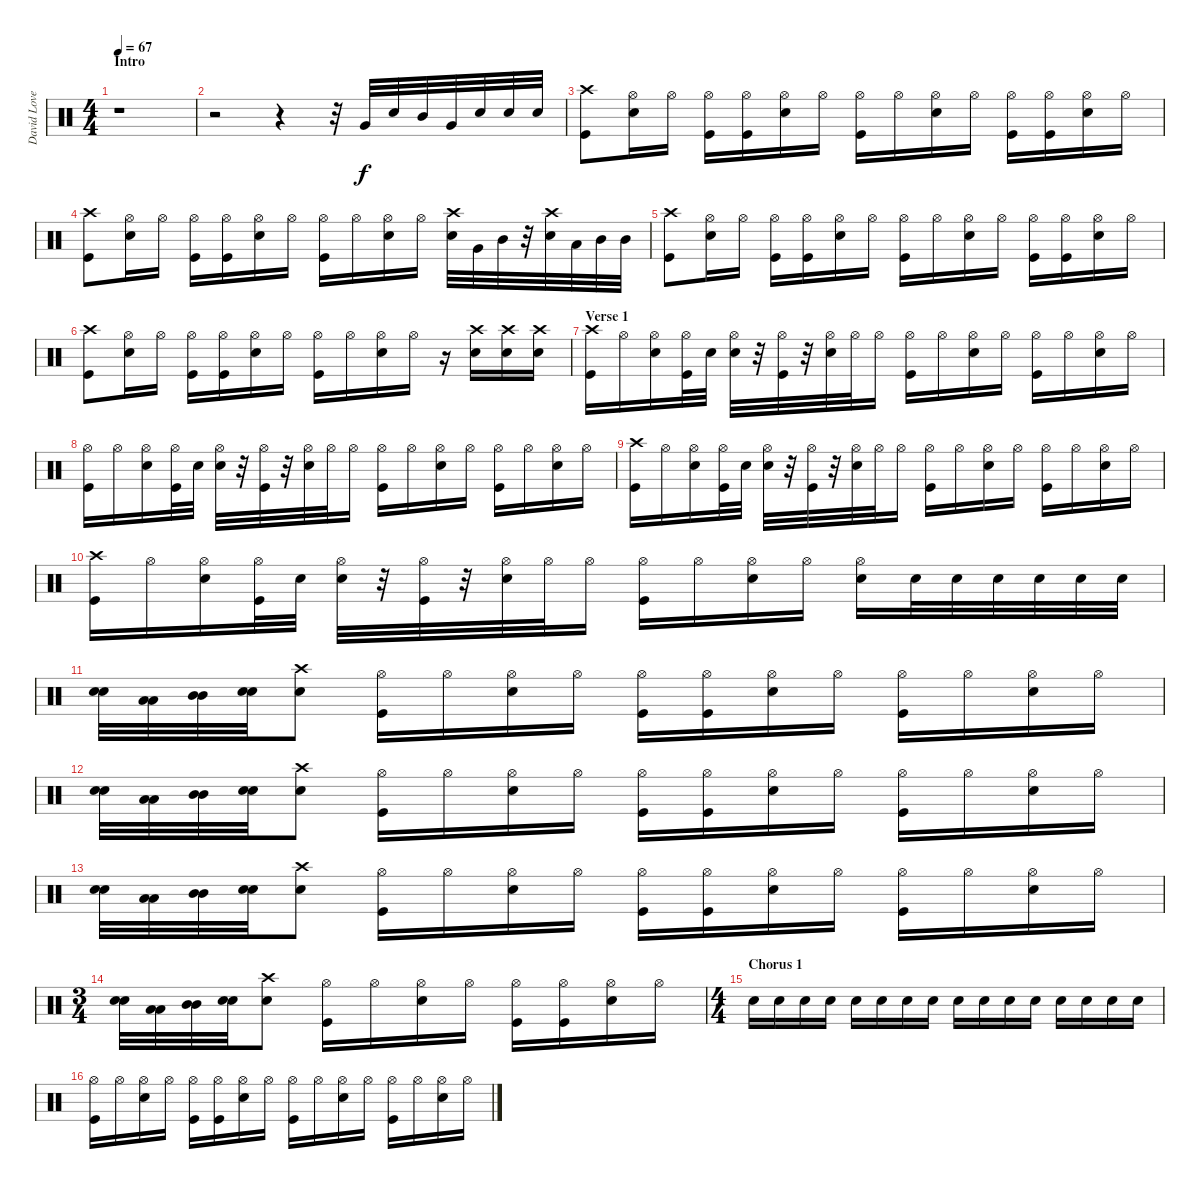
\track ("David Lovering (Drums)" "David Love") {instrument percussion}
\staff {score}
\articulation defaults
\ts (4 4)
\section ("" "Intro")
\tempo 67
\clef neutral
\ks c
r.1{dy f} |
r.2 r.4 r.32 "Very Low Tom (hit)".32 "Snare (hit) 2".32 "Mid Tom (hit)".32 "Very Low Tom (hit)".32 "Snare (hit) 2".32 "Snare (hit) 2".32 "Snare (hit) 2".32 |
("Crash high (hit)" "Kick (hit)").8 ("Hi-Hat (open)" "Snare (hit) 2").16 "Hi-Hat (open)".16 ("Hi-Hat (open)" "Kick (hit)").16 ("Hi-Hat (open)" "Kick (hit)").16 ("Hi-Hat (open)" "Snare (hit) 2").16 "Hi-Hat (open)".16 ("Hi-Hat (open)" "Kick (hit)").16 "Hi-Hat (open)".16 ("Hi-Hat (open)" "Snare (hit) 2").16 "Hi-Hat (open)".16 ("Hi-Hat (open)" "Kick (hit)").16 ("Hi-Hat (open)" "Kick (hit)").16 ("Hi-Hat (open)" "Snare (hit) 2").16 "Hi-Hat (open)".16 |
("Crash high (hit)" "Kick (hit)").8 ("Hi-Hat (open)" "Snare (hit) 2").16 "Hi-Hat (open)".16 ("Hi-Hat (open)" "Kick (hit)").16 ("Hi-Hat (open)" "Kick (hit)").16 ("Hi-Hat (open)" "Snare (hit) 2").16 "Hi-Hat (open)".16 ("Hi-Hat (open)" "Kick (hit)").16 "Hi-Hat (open)".16 ("Hi-Hat (open)" "Snare (hit) 2").16 "Hi-Hat (open)".16 ("Crash high (hit)" "Snare (hit) 2").32 "Very Low Tom (hit)".32 "Mid Tom (hit)".32 r.32 ("Crash high (hit)" "Snare (hit) 2").32 "Low Tom (hit)".32 "Mid Tom (hit)".32 "Mid Tom (hit)".32 |
("Crash high (hit)" "Kick (hit)").8 ("Hi-Hat (open)" "Snare (hit) 2").16 "Hi-Hat (open)".16 ("Hi-Hat (open)" "Kick (hit)").16 ("Hi-Hat (open)" "Kick (hit)").16 ("Hi-Hat (open)" "Snare (hit) 2").16 "Hi-Hat (open)".16 ("Hi-Hat (open)" "Kick (hit)").16 "Hi-Hat (open)".16 ("Hi-Hat (open)" "Snare (hit) 2").16 "Hi-Hat (open)".16 ("Hi-Hat (open)" "Kick (hit)").16 ("Hi-Hat (open)" "Kick (hit)").16 ("Hi-Hat (open)" "Snare (hit) 2").16 "Hi-Hat (open)".16 |
("Crash high (hit)" "Kick (hit)").8 ("Hi-Hat (open)" "Snare (hit) 2").16 "Hi-Hat (open)".16 ("Hi-Hat (open)" "Kick (hit)").16 ("Hi-Hat (open)" "Kick (hit)").16 ("Hi-Hat (open)" "Snare (hit) 2").16 "Hi-Hat (open)".16 ("Hi-Hat (open)" "Kick (hit)").16 "Hi-Hat (open)".16 ("Hi-Hat (open)" "Snare (hit) 2").16 "Hi-Hat (open)".16 r.16 ("Crash high (hit)" "Snare (hit) 2").16 ("Crash high (hit)" "Snare (hit) 2").16 ("Crash high (hit)" "Snare (hit) 2").16 |
\section ("" "Verse 1")
("Crash high (hit)" "Kick (hit)").16 "Hi-Hat (open)".16 ("Hi-Hat (open)" "Snare (hit) 2").16 ("Hi-Hat (open)" "Kick (hit)").32 "Snare (hit) 2".32 ("Hi-Hat (open)" "Snare (hit) 2").32 r.32 ("Hi-Hat (open)" "Kick (hit)").32 r.32 ("Hi-Hat (open)" "Snare (hit) 2").32 "Hi-Hat (open)".32 "Hi-Hat (open)".16 ("Hi-Hat (open)" "Kick (hit)").16 "Hi-Hat (open)".16 ("Hi-Hat (open)" "Snare (hit) 2").16 "Hi-Hat (open)".16 ("Hi-Hat (open)" "Kick (hit)").16 "Hi-Hat (open)".16 ("Hi-Hat (open)" "Snare (hit) 2").16 "Hi-Hat (open)".16 |
("Hi-Hat (open)" "Kick (hit)").16 "Hi-Hat (open)".16 ("Hi-Hat (open)" "Snare (hit) 2").16 ("Hi-Hat (open)" "Kick (hit)").32 "Snare (hit) 2".32 ("Hi-Hat (open)" "Snare (hit) 2").32 r.32 ("Hi-Hat (open)" "Kick (hit)").32 r.32 ("Hi-Hat (open)" "Snare (hit) 2").32 "Hi-Hat (open)".32 "Hi-Hat (open)".16 ("Hi-Hat (open)" "Kick (hit)").16 "Hi-Hat (open)".16 ("Hi-Hat (open)" "Snare (hit) 2").16 "Hi-Hat (open)".16 ("Hi-Hat (open)" "Kick (hit)").16 "Hi-Hat (open)".16 ("Hi-Hat (open)" "Snare (hit) 2").16 "Hi-Hat (open)".16 |
("Crash high (hit)" "Kick (hit)").16 "Hi-Hat (open)".16 ("Hi-Hat (open)" "Snare (hit) 2").16 ("Hi-Hat (open)" "Kick (hit)").32 "Snare (hit) 2".32 ("Hi-Hat (open)" "Snare (hit) 2").32 r.32 ("Hi-Hat (open)" "Kick (hit)").32 r.32 ("Hi-Hat (open)" "Snare (hit) 2").32 "Hi-Hat (open)".32 "Hi-Hat (open)".16 ("Hi-Hat (open)" "Kick (hit)").16 "Hi-Hat (open)".16 ("Hi-Hat (open)" "Snare (hit) 2").16 "Hi-Hat (open)".16 ("Hi-Hat (open)" "Kick (hit)").16 "Hi-Hat (open)".16 ("Hi-Hat (open)" "Snare (hit) 2").16 "Hi-Hat (open)".16 |
("Crash high (hit)" "Kick (hit)").16 "Hi-Hat (open)".16 ("Hi-Hat (open)" "Snare (hit) 2").16 ("Hi-Hat (open)" "Kick (hit)").32 "Snare (hit) 2".32 ("Hi-Hat (open)" "Snare (hit) 2").32 r.32 ("Hi-Hat (open)" "Kick (hit)").32 r.32 ("Hi-Hat (open)" "Snare (hit) 2").32 "Hi-Hat (open)".32 "Hi-Hat (open)".16 ("Hi-Hat (open)" "Kick (hit)").16 "Hi-Hat (open)".16 ("Hi-Hat (open)" "Snare (hit) 2").16 "Hi-Hat (open)".16 ("Hi-Hat (open)" "Snare (hit) 2").16 "Snare (hit) 2".32 "Snare (hit) 2".32 "Snare (hit) 2".32 "Snare (hit) 2".32 "Snare (hit) 2".32 "Snare (hit) 2".32 |
("Snare (hit) 2" "Snare (hit) 2").32 ("Low Tom (hit)" "Low Tom (hit)").32 ("Mid Tom (hit)" "Mid Tom (hit)").32 ("Snare (hit) 2" "Snare (hit) 2").32 ("Crash high (hit)" "Snare (hit) 2").8 ("Hi-Hat (open)" "Kick (hit)").16 "Hi-Hat (open)".16 ("Hi-Hat (open)" "Snare (hit) 2").16 "Hi-Hat (open)".16 ("Hi-Hat (open)" "Kick (hit)").16 ("Hi-Hat (open)" "Kick (hit)").16 ("Hi-Hat (open)" "Snare (hit) 2").16 "Hi-Hat (open)".16 ("Hi-Hat (open)" "Kick (hit)").16 "Hi-Hat (open)".16 ("Hi-Hat (open)" "Snare (hit) 2").16 "Hi-Hat (open)".16 |
("Snare (hit) 2" "Snare (hit) 2").32 ("Low Tom (hit)" "Low Tom (hit)").32 ("Mid Tom (hit)" "Mid Tom (hit)").32 ("Snare (hit) 2" "Snare (hit) 2").32 ("Crash high (hit)" "Snare (hit) 2").8 ("Hi-Hat (open)" "Kick (hit)").16 "Hi-Hat (open)".16 ("Hi-Hat (open)" "Snare (hit) 2").16 "Hi-Hat (open)".16 ("Hi-Hat (open)" "Kick (hit)").16 ("Hi-Hat (open)" "Kick (hit)").16 ("Hi-Hat (open)" "Snare (hit) 2").16 "Hi-Hat (open)".16 ("Hi-Hat (open)" "Kick (hit)").16 "Hi-Hat (open)".16 ("Hi-Hat (open)" "Snare (hit) 2").16 "Hi-Hat (open)".16 |
("Snare (hit) 2" "Snare (hit) 2").32 ("Low Tom (hit)" "Low Tom (hit)").32 ("Mid Tom (hit)" "Mid Tom (hit)").32 ("Snare (hit) 2" "Snare (hit) 2").32 ("Crash high (hit)" "Snare (hit) 2").8 ("Hi-Hat (open)" "Kick (hit)").16 "Hi-Hat (open)".16 ("Hi-Hat (open)" "Snare (hit) 2").16 "Hi-Hat (open)".16 ("Hi-Hat (open)" "Kick (hit)").16 ("Hi-Hat (open)" "Kick (hit)").16 ("Hi-Hat (open)" "Snare (hit) 2").16 "Hi-Hat (open)".16 ("Hi-Hat (open)" "Kick (hit)").16 "Hi-Hat (open)".16 ("Hi-Hat (open)" "Snare (hit) 2").16 "Hi-Hat (open)".16 |
\ts (3 4)
("Snare (hit) 2" "Snare (hit) 2").32 ("Low Tom (hit)" "Low Tom (hit)").32 ("Mid Tom (hit)" "Mid Tom (hit)").32 ("Snare (hit) 2" "Snare (hit) 2").32 ("Crash high (hit)" "Snare (hit) 2").8 ("Hi-Hat (open)" "Kick (hit)").16 "Hi-Hat (open)".16 ("Hi-Hat (open)" "Snare (hit) 2").16 "Hi-Hat (open)".16 ("Hi-Hat (open)" "Kick (hit)").16 ("Hi-Hat (open)" "Kick (hit)").16 ("Hi-Hat (open)" "Snare (hit) 2").16 "Hi-Hat (open)".16 |
\ts (4 4)
\section ("" "Chorus 1")
"Snare (hit) 2".16 "Snare (hit) 2".16 "Snare (hit) 2".16 "Snare (hit) 2".16 "Snare (hit) 2".16 "Snare (hit) 2".16 "Snare (hit) 2".16 "Snare (hit) 2".16 "Snare (hit) 2".16 "Snare (hit) 2".16 "Snare (hit) 2".16 "Snare (hit) 2".16 "Snare (hit) 2".16 "Snare (hit) 2".16 "Snare (hit) 2".16 "Snare (hit) 2".16 |
("Hi-Hat (open)" "Kick (hit)").16 "Hi-Hat (open)".16 ("Hi-Hat (open)" "Snare (hit) 2").16 "Hi-Hat (open)".16 ("Hi-Hat (open)" "Kick (hit)").16 ("Hi-Hat (open)" "Kick (hit)").16 ("Hi-Hat (open)" "Snare (hit) 2").16 "Hi-Hat (open)".16 ("Hi-Hat (open)" "Kick (hit)").16 "Hi-Hat (open)".16 ("Hi-Hat (open)" "Snare (hit) 2").16 "Hi-Hat (open)".16 ("Hi-Hat (open)" "Kick (hit)").16 "Hi-Hat (open)".16 ("Hi-Hat (open)" "Snare (hit) 2").16 "Hi-Hat (open)".16
